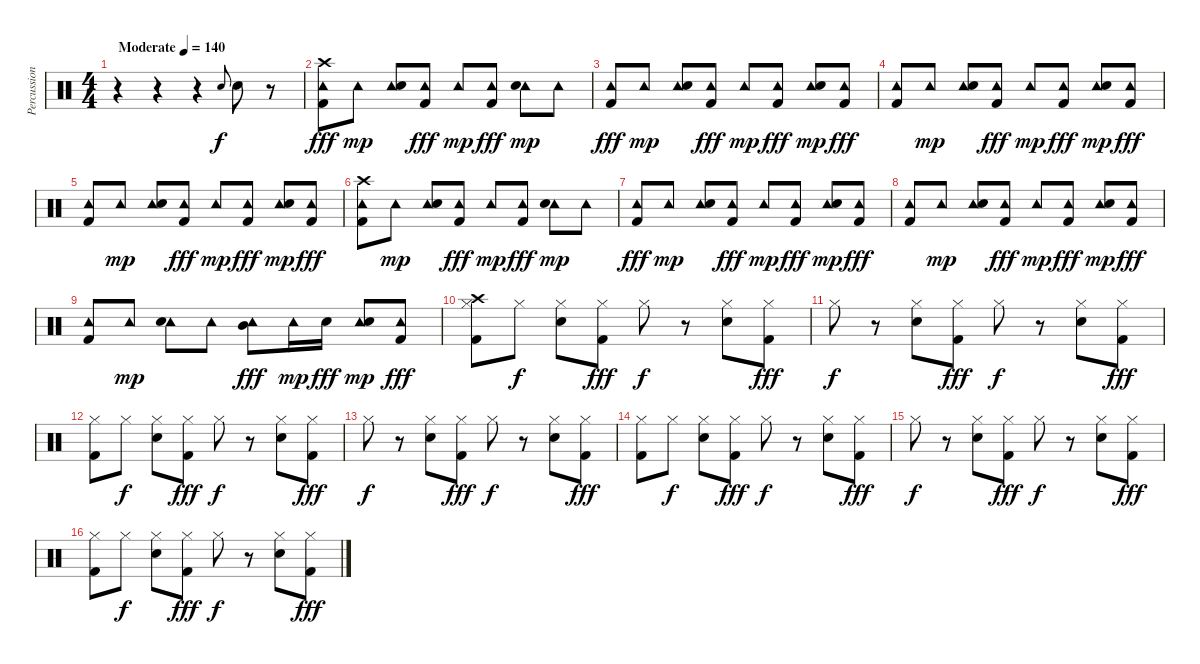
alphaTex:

\track ("Percussion" "Percussion") {instrument percussion}
\staff {score}
\articulation defaults
\ts (4 4)
\tempo (140 "Moderate")
\clef neutral
\ks c
r.4{dy f} r.4 r.4 "Electric Snare (hit)".8{gr onbeat} "Electric Snare (hit)".8 r.8 |
("Tambourine (hit)" "Kick (hit) 2" "Crash high (hit)").8{dy fff} "Tambourine (hit)".8{dy mp} ("Tambourine (hit)" "Electric Snare (hit)").8 ("Tambourine (hit)" "Kick (hit) 2").8{dy fff} "Tambourine (hit)".8{dy mp} ("Tambourine (hit)" "Kick (hit) 2").8{dy fff} ("Tambourine (hit)" "Electric Snare (hit)").8{dy mp} "Tambourine (hit)".8 |
("Tambourine (hit)" "Kick (hit) 2").8{dy fff} "Tambourine (hit)".8{dy mp} ("Tambourine (hit)" "Electric Snare (hit)").8 ("Tambourine (hit)" "Kick (hit) 2").8{dy fff} "Tambourine (hit)".8{dy mp} ("Tambourine (hit)" "Kick (hit) 2").8{dy fff} ("Tambourine (hit)" "Electric Snare (hit)").8{dy mp} ("Tambourine (hit)" "Kick (hit) 2").8{dy fff} |
("Tambourine (hit)" "Kick (hit) 2").8 "Tambourine (hit)".8{dy mp} ("Tambourine (hit)" "Electric Snare (hit)").8 ("Tambourine (hit)" "Kick (hit) 2").8{dy fff} "Tambourine (hit)".8{dy mp} ("Tambourine (hit)" "Kick (hit) 2").8{dy fff} ("Tambourine (hit)" "Electric Snare (hit)").8{dy mp} ("Tambourine (hit)" "Kick (hit) 2").8{dy fff} |
("Tambourine (hit)" "Kick (hit) 2").8 "Tambourine (hit)".8{dy mp} ("Tambourine (hit)" "Electric Snare (hit)").8 ("Tambourine (hit)" "Kick (hit) 2").8{dy fff} "Tambourine (hit)".8{dy mp} ("Tambourine (hit)" "Kick (hit) 2").8{dy fff} ("Tambourine (hit)" "Electric Snare (hit)").8{dy mp} ("Tambourine (hit)" "Kick (hit) 2").8{dy fff} |
("Tambourine (hit)" "Kick (hit) 2" "Crash high (hit)").8 "Tambourine (hit)".8{dy mp} ("Tambourine (hit)" "Electric Snare (hit)").8 ("Tambourine (hit)" "Kick (hit) 2").8{dy fff} "Tambourine (hit)".8{dy mp} ("Tambourine (hit)" "Kick (hit) 2").8{dy fff} ("Tambourine (hit)" "Electric Snare (hit)").8{dy mp} "Tambourine (hit)".8 |
("Tambourine (hit)" "Kick (hit) 2").8{dy fff} "Tambourine (hit)".8{dy mp} ("Tambourine (hit)" "Electric Snare (hit)").8 ("Tambourine (hit)" "Kick (hit) 2").8{dy fff} "Tambourine (hit)".8{dy mp} ("Tambourine (hit)" "Kick (hit) 2").8{dy fff} ("Tambourine (hit)" "Electric Snare (hit)").8{dy mp} ("Tambourine (hit)" "Kick (hit) 2").8{dy fff} |
("Tambourine (hit)" "Kick (hit) 2").8 "Tambourine (hit)".8{dy mp} ("Tambourine (hit)" "Electric Snare (hit)").8 ("Tambourine (hit)" "Kick (hit) 2").8{dy fff} "Tambourine (hit)".8{dy mp} ("Tambourine (hit)" "Kick (hit) 2").8{dy fff} ("Tambourine (hit)" "Electric Snare (hit)").8{dy mp} ("Tambourine (hit)" "Kick (hit) 2").8{dy fff} |
("Tambourine (hit)" "Kick (hit) 2").8 "Tambourine (hit)".8{dy mp} ("Tambourine (hit)" "Electric Snare (hit)").8 "Tambourine (hit)".8 ("Tambourine (hit)" "Mid Tom (hit)").8{dy fff} "Tambourine (hit)".16{dy mp} "Electric Snare (hit)".16{dy fff} ("Tambourine (hit)" "Electric Snare (hit)").8{dy mp} ("Tambourine (hit)" "Kick (hit) 2").8{dy fff} |
("Hi-Hat (closed)" "Kick (hit) 2" "Crash high (hit)").8 "Hi-Hat (closed)".8{dy f} ("Hi-Hat (closed)" "Electric Snare (hit)").8 ("Hi-Hat (closed)" "Kick (hit) 2").8{dy fff} "Hi-Hat (closed)".8{dy f} r.8 ("Hi-Hat (closed)" "Electric Snare (hit)").8 ("Hi-Hat (closed)" "Kick (hit) 2").8{dy fff} |
"Hi-Hat (closed)".8{dy f} r.8 ("Hi-Hat (closed)" "Electric Snare (hit)").8 ("Hi-Hat (closed)" "Kick (hit) 2").8{dy fff} "Hi-Hat (closed)".8{dy f} r.8 ("Hi-Hat (closed)" "Electric Snare (hit)").8 ("Hi-Hat (closed)" "Kick (hit) 2").8{dy fff} |
("Hi-Hat (closed)" "Kick (hit) 2").8 "Hi-Hat (closed)".8{dy f} ("Hi-Hat (closed)" "Electric Snare (hit)").8 ("Hi-Hat (closed)" "Kick (hit) 2").8{dy fff} "Hi-Hat (closed)".8{dy f} r.8 ("Hi-Hat (closed)" "Electric Snare (hit)").8 ("Hi-Hat (closed)" "Kick (hit) 2").8{dy fff} |
"Hi-Hat (closed)".8{dy f} r.8 ("Hi-Hat (closed)" "Electric Snare (hit)").8 ("Hi-Hat (closed)" "Kick (hit) 2").8{dy fff} "Hi-Hat (closed)".8{dy f} r.8 ("Hi-Hat (closed)" "Electric Snare (hit)").8 ("Hi-Hat (closed)" "Kick (hit) 2").8{dy fff} |
("Hi-Hat (closed)" "Kick (hit) 2").8 "Hi-Hat (closed)".8{dy f} ("Hi-Hat (closed)" "Electric Snare (hit)").8 ("Hi-Hat (closed)" "Kick (hit) 2").8{dy fff} "Hi-Hat (closed)".8{dy f} r.8 ("Hi-Hat (closed)" "Electric Snare (hit)").8 ("Hi-Hat (closed)" "Kick (hit) 2").8{dy fff} |
"Hi-Hat (closed)".8{dy f} r.8 ("Hi-Hat (closed)" "Electric Snare (hit)").8 ("Hi-Hat (closed)" "Kick (hit) 2").8{dy fff} "Hi-Hat (closed)".8{dy f} r.8 ("Hi-Hat (closed)" "Electric Snare (hit)").8 ("Hi-Hat (closed)" "Kick (hit) 2").8{dy fff} |
("Hi-Hat (closed)" "Kick (hit) 2").8 "Hi-Hat (closed)".8{dy f} ("Hi-Hat (closed)" "Electric Snare (hit)").8 ("Hi-Hat (closed)" "Kick (hit) 2").8{dy fff} "Hi-Hat (closed)".8{dy f} r.8 ("Hi-Hat (closed)" "Electric Snare (hit)").8 ("Hi-Hat (closed)" "Kick (hit) 2").8{dy fff}
